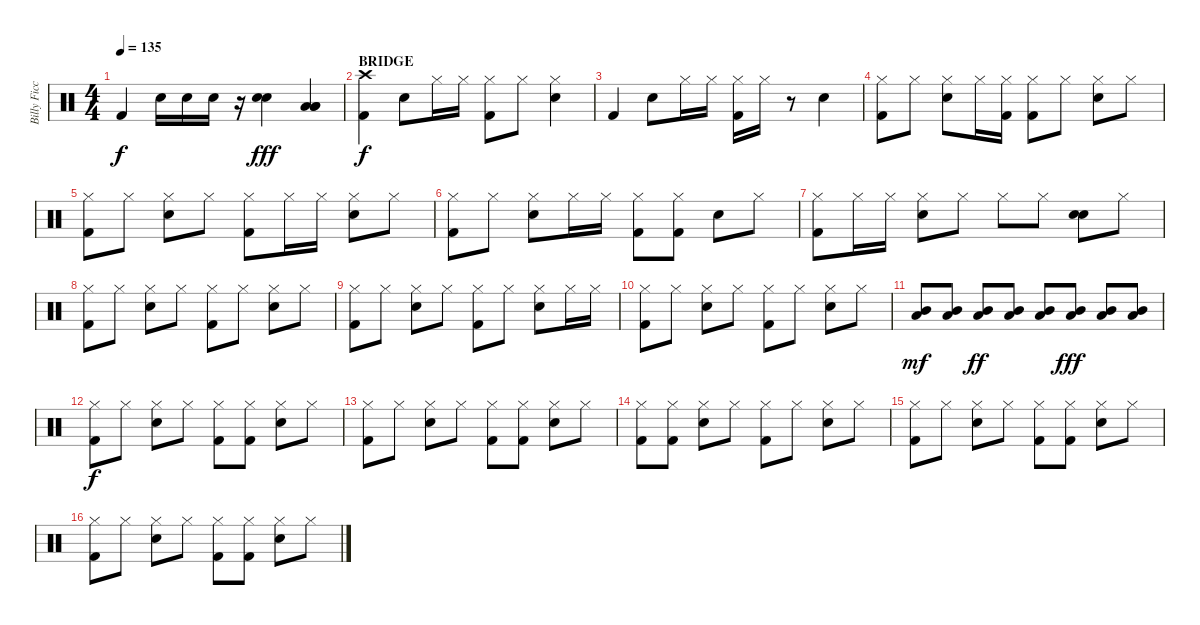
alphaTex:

\track ("Billy Ficca" "Billy Ficc") {instrument percussion}
\staff {score}
\articulation defaults
\ts (4 4)
\tempo 135
\clef neutral
\ks c "Kick (hit) 2".4{dy f} "Electric Snare (hit)".16 "Electric Snare (hit)".16 "Electric Snare (hit)".16
r.16 ("Electric Snare (hit)" "Electric Snare (hit)").4{dy fff} ("Low Floor Tom (hit)" "Low Floor Tom (hit)" "Low Floor Tom (hit)").4 |
\section ("" "BRIDGE")
("Crash high (hit)" "Kick (hit) 2").4{dy f} "Electric Snare (hit)".8 "Hi-Hat (closed)".16 "Hi-Hat (closed)".16 ("Hi-Hat (closed)" "Kick (hit) 2").8 "Hi-Hat (closed)".8 ("Electric Snare (hit)" "Hi-Hat (closed)").4 |
"Kick (hit) 2".4 "Electric Snare (hit)".8 "Hi-Hat (closed)".16 "Hi-Hat (closed)".16 ("Hi-Hat (closed)" "Kick (hit) 2").16 "Hi-Hat (closed)".16 r.8 "Electric Snare (hit)".4 |
("Hi-Hat (closed)" "Kick (hit) 2").8 "Hi-Hat (closed)".8 ("Hi-Hat (closed)" "Electric Snare (hit)").8 "Hi-Hat (closed)".16 ("Hi-Hat (closed)" "Kick (hit) 2").16 ("Hi-Hat (closed)" "Kick (hit) 2").8 "Hi-Hat (closed)".8 ("Hi-Hat (closed)" "Electric Snare (hit)").8 "Hi-Hat (closed)".8 |
("Hi-Hat (closed)" "Kick (hit) 2").8 "Hi-Hat (closed)".8 ("Hi-Hat (closed)" "Electric Snare (hit)").8 "Hi-Hat (closed)".8 ("Hi-Hat (closed)" "Kick (hit) 2").8 "Hi-Hat (closed)".16 "Hi-Hat (closed)".16 ("Hi-Hat (closed)" "Electric Snare (hit)").8 "Hi-Hat (closed)".8 |
("Hi-Hat (closed)" "Kick (hit) 2").8 "Hi-Hat (closed)".8 ("Electric Snare (hit)" "Hi-Hat (closed)").8 "Hi-Hat (closed)".16 "Hi-Hat (closed)".16 ("Kick (hit) 2" "Hi-Hat (closed)").8 ("Kick (hit) 2" "Hi-Hat (closed)").8 "Electric Snare (hit)".8 "Hi-Hat (closed)".8 |
("Hi-Hat (closed)" "Kick (hit) 2").8 "Hi-Hat (closed)".16 "Hi-Hat (closed)".16 ("Hi-Hat (closed)" "Electric Snare (hit)").8 "Hi-Hat (closed)".8 "Hi-Hat (closed)".8 "Hi-Hat (closed)".8 ("Electric Snare (hit)" "Electric Snare (hit)").8 "Hi-Hat (closed)".8 |
("Hi-Hat (closed)" "Kick (hit) 2").8 "Hi-Hat (closed)".8 ("Hi-Hat (closed)" "Electric Snare (hit)").8 "Hi-Hat (closed)".8 ("Hi-Hat (closed)" "Kick (hit) 2").8 "Hi-Hat (closed)".8 ("Hi-Hat (closed)" "Electric Snare (hit)").8 "Hi-Hat (closed)".8 |
("Hi-Hat (closed)" "Kick (hit) 2").8 "Hi-Hat (closed)".8 ("Hi-Hat (closed)" "Electric Snare (hit)").8 "Hi-Hat (closed)".8 ("Hi-Hat (closed)" "Kick (hit) 2").8 "Hi-Hat (closed)".8 ("Hi-Hat (closed)" "Electric Snare (hit)").8 "Hi-Hat (closed)".16 "Hi-Hat (closed)".16 |
("Hi-Hat (closed)" "Kick (hit) 2").8 "Hi-Hat (closed)".8 ("Hi-Hat (closed)" "Electric Snare (hit)").8 "Hi-Hat (closed)".8 ("Hi-Hat (closed)" "Kick (hit) 2").8 "Hi-Hat (closed)".8 ("Hi-Hat (closed)" "Electric Snare (hit)").8 "Hi-Hat (closed)".8 |
("Low Tom (hit)" "Mid Tom (hit)").8{dy mf} ("Low Tom (hit)" "Mid Tom (hit)").8 ("Low Tom (hit)" "Mid Tom (hit)").8{dy ff} ("Low Tom (hit)" "Mid Tom (hit)").8 ("Low Tom (hit)" "Mid Tom (hit)").8 ("Low Tom (hit)" "Mid Tom (hit)").8{dy fff} ("Low Tom (hit)" "Mid Tom (hit)").8 ("Low Tom (hit)" "Mid Tom (hit)").8 |
("Kick (hit) 2" "Hi-Hat (closed)").8{dy f} "Hi-Hat (closed)".8 ("Electric Snare (hit)" "Hi-Hat (closed)").8 "Hi-Hat (closed)".8 ("Kick (hit) 2" "Hi-Hat (closed)").8 ("Hi-Hat (closed)" "Kick (hit) 2").8 ("Electric Snare (hit)" "Hi-Hat (closed)").8 "Hi-Hat (closed)".8 |
("Kick (hit) 2" "Hi-Hat (closed)").8 "Hi-Hat (closed)".8 ("Electric Snare (hit)" "Hi-Hat (closed)").8 "Hi-Hat (closed)".8 ("Kick (hit) 2" "Hi-Hat (closed)").8 ("Hi-Hat (closed)" "Kick (hit) 2").8 ("Electric Snare (hit)" "Hi-Hat (closed)").8 "Hi-Hat (closed)".8 |
("Kick (hit) 2" "Hi-Hat (closed)").8 ("Hi-Hat (closed)" "Kick (hit) 2").8 ("Electric Snare (hit)" "Hi-Hat (closed)").8 "Hi-Hat (closed)".8 ("Kick (hit) 2" "Hi-Hat (closed)").8 "Hi-Hat (closed)".8 ("Electric Snare (hit)" "Hi-Hat (closed)").8 "Hi-Hat (closed)".8 |
("Kick (hit) 2" "Hi-Hat (closed)").8 "Hi-Hat (closed)".8 ("Electric Snare (hit)" "Hi-Hat (closed)").8 "Hi-Hat (closed)".8 ("Kick (hit) 2" "Hi-Hat (closed)").8 ("Hi-Hat (closed)" "Kick (hit) 2").8 ("Electric Snare (hit)" "Hi-Hat (closed)").8 "Hi-Hat (closed)".8 |
("Kick (hit) 2" "Hi-Hat (closed)").8 "Hi-Hat (closed)".8 ("Electric Snare (hit)" "Hi-Hat (closed)").8 "Hi-Hat (closed)".8 ("Kick (hit) 2" "Hi-Hat (closed)").8 ("Kick (hit) 2" "Hi-Hat (closed)").8 ("Electric Snare (hit)" "Hi-Hat (closed)").8 "Hi-Hat (closed)".8
